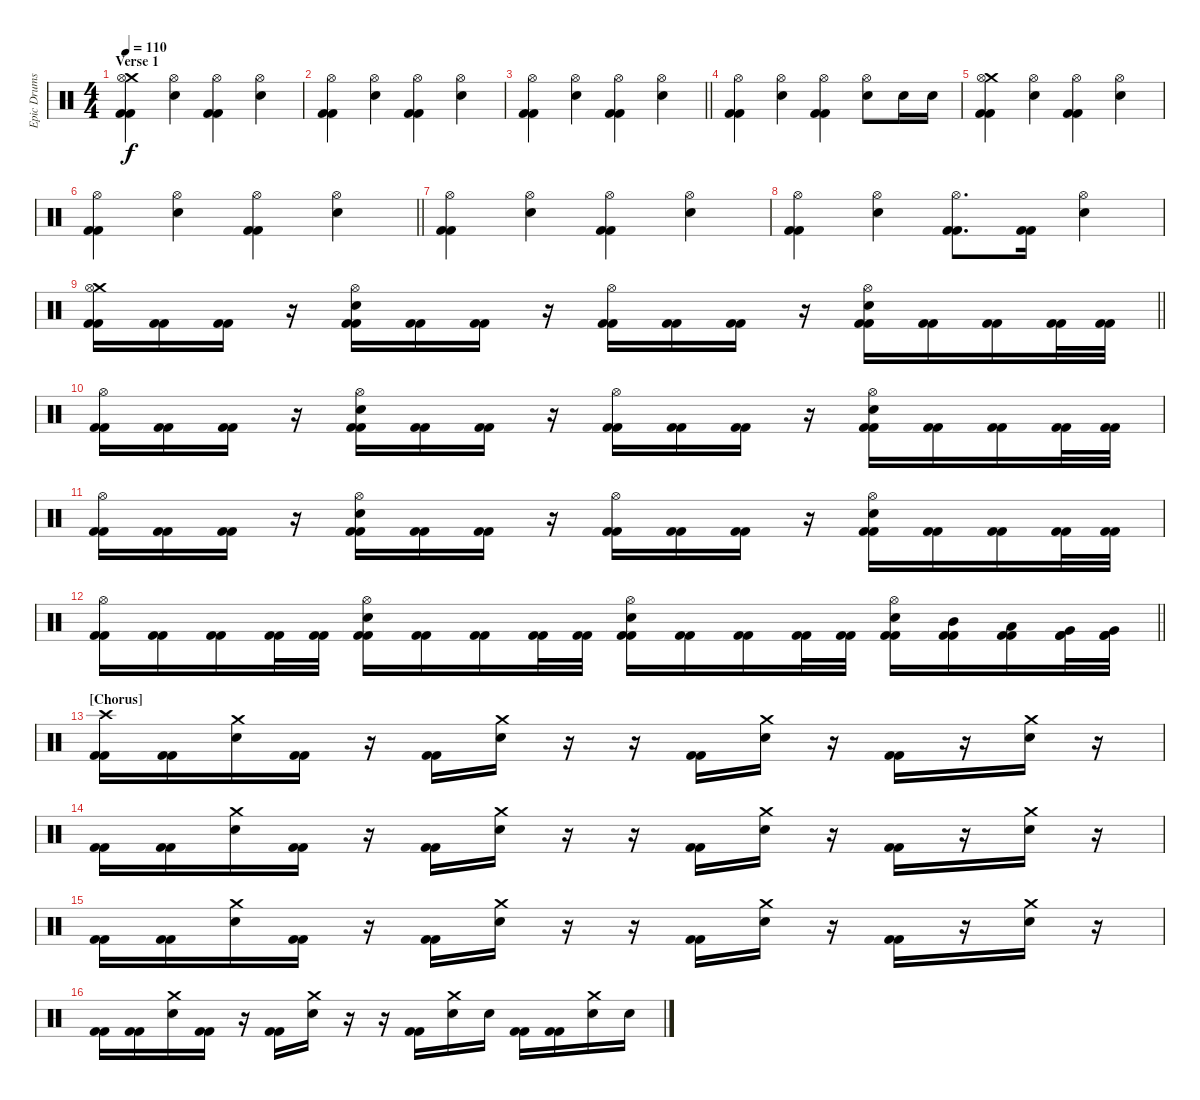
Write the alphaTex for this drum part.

\track ("Epic Drums" "Epic Drums") {instrument percussion}
\staff {score}
\articulation defaults
\ts (4 4)
\section ("" "Verse 1")
\tempo 110
\clef neutral
\ks c
("Crash medium (hit)" "Hi-Hat (open)" "Kick (hit) 2" "Kick (hit) 2").4{dy f} ("Hi-Hat (open)" "Electric Snare (hit)").4 ("Hi-Hat (open)" "Kick (hit) 2" "Kick (hit) 2").4 ("Hi-Hat (open)" "Electric Snare (hit)").4 |
("Hi-Hat (open)" "Kick (hit) 2" "Kick (hit) 2").4 ("Hi-Hat (open)" "Electric Snare (hit)").4 ("Hi-Hat (open)" "Kick (hit) 2" "Kick (hit) 2").4 ("Hi-Hat (open)" "Electric Snare (hit)").4 |
\barLineRight lightlight
("Hi-Hat (open)" "Kick (hit) 2" "Kick (hit) 2").4 ("Hi-Hat (open)" "Electric Snare (hit)").4 ("Hi-Hat (open)" "Kick (hit) 2" "Kick (hit) 2").4 ("Hi-Hat (open)" "Electric Snare (hit)").4 |
("Hi-Hat (open)" "Kick (hit) 2" "Kick (hit) 2").4 ("Hi-Hat (open)" "Electric Snare (hit)").4 ("Hi-Hat (open)" "Kick (hit) 2" "Kick (hit) 2").4 ("Hi-Hat (open)" "Electric Snare (hit)").8 "Electric Snare (hit)".16 "Electric Snare (hit)".16 |
("Crash medium (hit)" "Hi-Hat (open)" "Kick (hit) 2" "Kick (hit) 2").4 ("Hi-Hat (open)" "Electric Snare (hit)").4 ("Hi-Hat (open)" "Kick (hit) 2" "Kick (hit) 2").4 ("Hi-Hat (open)" "Electric Snare (hit)").4 |
\barLineRight lightlight
("Hi-Hat (open)" "Kick (hit) 2" "Kick (hit) 2").4 ("Hi-Hat (open)" "Electric Snare (hit)").4 ("Hi-Hat (open)" "Kick (hit) 2" "Kick (hit) 2").4 ("Hi-Hat (open)" "Electric Snare (hit)").4 |
("Hi-Hat (open)" "Kick (hit) 2" "Kick (hit) 2").4 ("Hi-Hat (open)" "Electric Snare (hit)").4 ("Hi-Hat (open)" "Kick (hit) 2" "Kick (hit) 2").4 ("Hi-Hat (open)" "Electric Snare (hit)").4 |
("Hi-Hat (open)" "Kick (hit) 2" "Kick (hit) 2").4 ("Hi-Hat (open)" "Electric Snare (hit)").4 ("Hi-Hat (open)" "Kick (hit) 2" "Kick (hit) 2").8{d} ("Kick (hit) 2" "Kick (hit) 2").16 ("Hi-Hat (open)" "Electric Snare (hit)").4 |
\barLineRight lightlight
("Crash medium (hit)" "Hi-Hat (open)" "Kick (hit) 2" "Kick (hit) 2").16 ("Kick (hit) 2" "Kick (hit) 2").16 ("Kick (hit) 2" "Kick (hit) 2").16 r.16 ("Hi-Hat (open)" "Electric Snare (hit)" "Kick (hit) 2" "Kick (hit) 2").16 ("Kick (hit) 2" "Kick (hit) 2").16 ("Kick (hit) 2" "Kick (hit) 2").16 r.16 ("Hi-Hat (open)" "Kick (hit) 2" "Kick (hit) 2").16 ("Kick (hit) 2" "Kick (hit) 2").16 ("Kick (hit) 2" "Kick (hit) 2").16 r.16 ("Hi-Hat (open)" "Electric Snare (hit)" "Kick (hit) 2" "Kick (hit) 2").16 ("Kick (hit) 2" "Kick (hit) 2").16 ("Kick (hit) 2" "Kick (hit) 2").16 ("Kick (hit) 2" "Kick (hit) 2").32 ("Kick (hit) 2" "Kick (hit) 2").32 |
("Hi-Hat (open)" "Kick (hit) 2" "Kick (hit) 2").16 ("Kick (hit) 2" "Kick (hit) 2").16 ("Kick (hit) 2" "Kick (hit) 2").16 r.16 ("Hi-Hat (open)" "Electric Snare (hit)" "Kick (hit) 2" "Kick (hit) 2").16 ("Kick (hit) 2" "Kick (hit) 2").16 ("Kick (hit) 2" "Kick (hit) 2").16 r.16 ("Hi-Hat (open)" "Kick (hit) 2" "Kick (hit) 2").16 ("Kick (hit) 2" "Kick (hit) 2").16 ("Kick (hit) 2" "Kick (hit) 2").16 r.16 ("Hi-Hat (open)" "Electric Snare (hit)" "Kick (hit) 2" "Kick (hit) 2").16 ("Kick (hit) 2" "Kick (hit) 2").16 ("Kick (hit) 2" "Kick (hit) 2").16 ("Kick (hit) 2" "Kick (hit) 2").32 ("Kick (hit) 2" "Kick (hit) 2").32 |
("Hi-Hat (open)" "Kick (hit) 2" "Kick (hit) 2").16 ("Kick (hit) 2" "Kick (hit) 2").16 ("Kick (hit) 2" "Kick (hit) 2").16 r.16 ("Hi-Hat (open)" "Electric Snare (hit)" "Kick (hit) 2" "Kick (hit) 2").16 ("Kick (hit) 2" "Kick (hit) 2").16 ("Kick (hit) 2" "Kick (hit) 2").16 r.16 ("Hi-Hat (open)" "Kick (hit) 2" "Kick (hit) 2").16 ("Kick (hit) 2" "Kick (hit) 2").16 ("Kick (hit) 2" "Kick (hit) 2").16 r.16 ("Hi-Hat (open)" "Electric Snare (hit)" "Kick (hit) 2" "Kick (hit) 2").16 ("Kick (hit) 2" "Kick (hit) 2").16 ("Kick (hit) 2" "Kick (hit) 2").16 ("Kick (hit) 2" "Kick (hit) 2").32 ("Kick (hit) 2" "Kick (hit) 2").32 |
\barLineRight lightlight
("Hi-Hat (open)" "Kick (hit) 2" "Kick (hit) 2").16 ("Kick (hit) 2" "Kick (hit) 2").16 ("Kick (hit) 2" "Kick (hit) 2").16 ("Kick (hit) 2" "Kick (hit) 2").32 ("Kick (hit) 2" "Kick (hit) 2").32 ("Hi-Hat (open)" "Electric Snare (hit)" "Kick (hit) 2" "Kick (hit) 2").16 ("Kick (hit) 2" "Kick (hit) 2").16 ("Kick (hit) 2" "Kick (hit) 2").16 ("Kick (hit) 2" "Kick (hit) 2").32 ("Kick (hit) 2" "Kick (hit) 2").32 ("Hi-Hat (open)" "Electric Snare (hit)" "Kick (hit) 2" "Kick (hit) 2").16 ("Kick (hit) 2" "Kick (hit) 2").16 ("Kick (hit) 2" "Kick (hit) 2").16 ("Kick (hit) 2" "Kick (hit) 2").32 ("Kick (hit) 2" "Kick (hit) 2").32 ("Hi-Hat (open)" "Electric Snare (hit)" "Kick (hit) 2" "Kick (hit) 2").16 ("Mid Tom (hit)" "Kick (hit) 2" "Kick (hit) 2").16 ("Low Tom (hit)" "Kick (hit) 2" "Kick (hit) 2").16 ("Very Low Tom (hit)" "Kick (hit) 2" "Kick (hit) 2").32 ("Very Low Tom (hit)" "Kick (hit) 2" "Kick (hit) 2").32 |
\section ("" "[Chorus]")
("Crash high (hit)" "Kick (hit) 2" "Kick (hit) 2").16 ("Kick (hit) 2" "Kick (hit) 2").16 ("Crash medium (hit)" "Electric Snare (hit)").16 ("Kick (hit) 2" "Kick (hit) 2").16 r.16 ("Kick (hit) 2" "Kick (hit) 2").16 ("Crash medium (hit)" "Electric Snare (hit)").16 r.16 r.16 ("Kick (hit) 2" "Kick (hit) 2").16 ("Crash medium (hit)" "Electric Snare (hit)").16 r.16 ("Kick (hit) 2" "Kick (hit) 2").16 r.16 ("Crash medium (hit)" "Electric Snare (hit)").16 r.16 |
("Kick (hit) 2" "Kick (hit) 2").16 ("Kick (hit) 2" "Kick (hit) 2").16 ("Crash medium (hit)" "Electric Snare (hit)").16 ("Kick (hit) 2" "Kick (hit) 2").16 r.16 ("Kick (hit) 2" "Kick (hit) 2").16 ("Crash medium (hit)" "Electric Snare (hit)").16 r.16 r.16 ("Kick (hit) 2" "Kick (hit) 2").16 ("Crash medium (hit)" "Electric Snare (hit)").16 r.16 ("Kick (hit) 2" "Kick (hit) 2").16 r.16 ("Crash medium (hit)" "Electric Snare (hit)").16 r.16 |
("Kick (hit) 2" "Kick (hit) 2").16 ("Kick (hit) 2" "Kick (hit) 2").16 ("Crash medium (hit)" "Electric Snare (hit)").16 ("Kick (hit) 2" "Kick (hit) 2").16 r.16 ("Kick (hit) 2" "Kick (hit) 2").16 ("Crash medium (hit)" "Electric Snare (hit)").16 r.16 r.16 ("Kick (hit) 2" "Kick (hit) 2").16 ("Crash medium (hit)" "Electric Snare (hit)").16 r.16 ("Kick (hit) 2" "Kick (hit) 2").16 r.16 ("Crash medium (hit)" "Electric Snare (hit)").16 r.16 |
("Kick (hit) 2" "Kick (hit) 2").16 ("Kick (hit) 2" "Kick (hit) 2").16 ("Crash medium (hit)" "Electric Snare (hit)").16 ("Kick (hit) 2" "Kick (hit) 2").16 r.16 ("Kick (hit) 2" "Kick (hit) 2").16 ("Crash medium (hit)" "Electric Snare (hit)").16 r.16 r.16 ("Kick (hit) 2" "Kick (hit) 2").16 ("Crash medium (hit)" "Electric Snare (hit)").16 "Electric Snare (hit)".16 ("Kick (hit) 2" "Kick (hit) 2").16 ("Kick (hit) 2" "Kick (hit) 2").16 ("Crash medium (hit)" "Electric Snare (hit)").16 "Electric Snare (hit)".16
